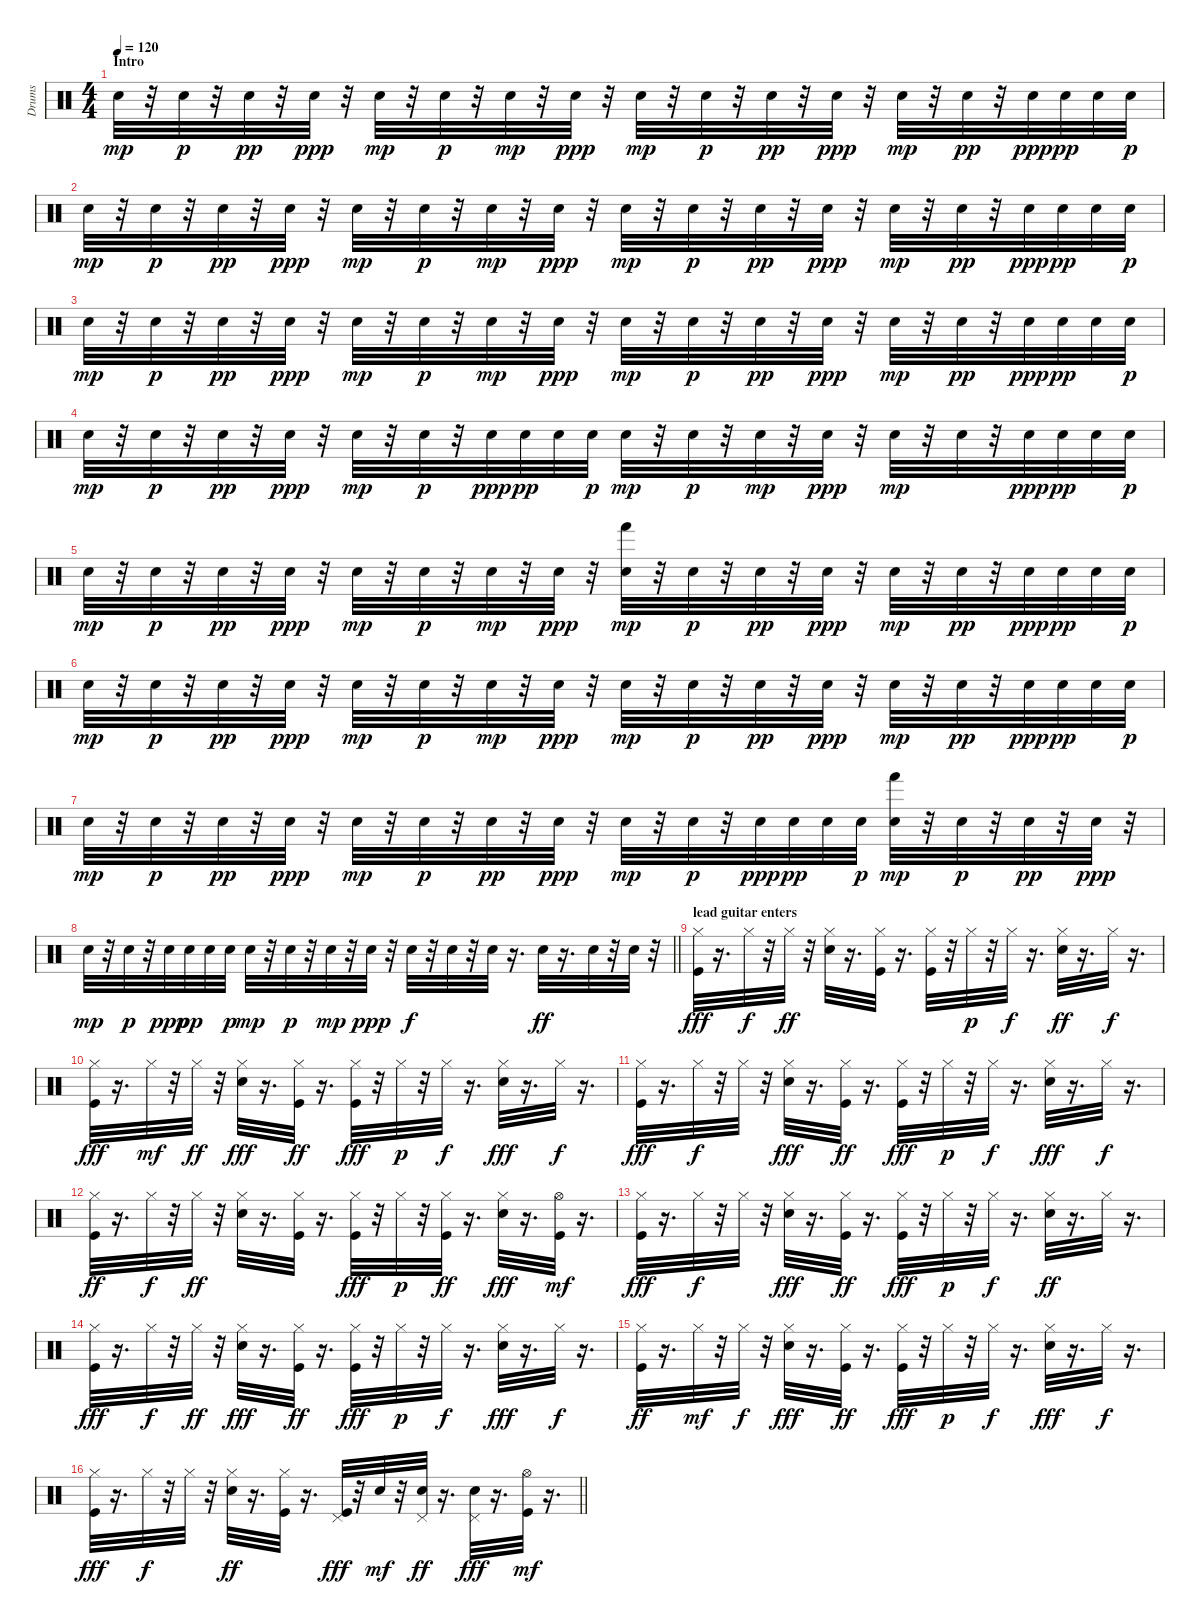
\track ("Drums" "Drums") {instrument percussion}
\staff {score}
\articulation defaults
\ts (4 4)
\section ("" "Intro")
\tempo 120
\clef neutral
\ks c "Snare (hit) 2".32{dy mp}
r.32 "Electric Snare (hit)".32{dy p} r.32 "Snare (hit) 2".32{dy pp} r.32 "Electric Snare (hit)".32{dy ppp} r.32 "Snare (hit) 2".32{dy mp} r.32 "Electric Snare (hit)".32{dy p} r.32 "Snare (hit) 2".32{dy mp} r.32 "Electric Snare (hit)".32{dy ppp} r.32 "Snare (hit) 2".32{dy mp} r.32 "Electric Snare (hit)".32{dy p} r.32 "Snare (hit) 2".32{dy pp} r.32 "Electric Snare (hit)".32{dy ppp} r.32 "Snare (hit) 2".32{dy mp} r.32 "Electric Snare (hit)".32{dy pp} r.32 "Electric Snare (hit)".32{dy ppp} "Electric Snare (hit)".32{dy pp} "Electric Snare (hit)".32 "Electric Snare (hit)".32{dy p} |
"Snare (hit) 2".32{dy mp} r.32 "Electric Snare (hit)".32{dy p} r.32 "Snare (hit) 2".32{dy pp} r.32 "Electric Snare (hit)".32{dy ppp} r.32 "Snare (hit) 2".32{dy mp} r.32 "Electric Snare (hit)".32{dy p} r.32 "Snare (hit) 2".32{dy mp} r.32 "Electric Snare (hit)".32{dy ppp} r.32 "Snare (hit) 2".32{dy mp} r.32 "Electric Snare (hit)".32{dy p} r.32 "Snare (hit) 2".32{dy pp} r.32 "Electric Snare (hit)".32{dy ppp} r.32 "Snare (hit) 2".32{dy mp} r.32 "Electric Snare (hit)".32{dy pp} r.32 "Electric Snare (hit)".32{dy ppp} "Electric Snare (hit)".32{dy pp} "Electric Snare (hit)".32 "Electric Snare (hit)".32{dy p} |
"Snare (hit) 2".32{dy mp} r.32 "Electric Snare (hit)".32{dy p} r.32 "Snare (hit) 2".32{dy pp} r.32 "Electric Snare (hit)".32{dy ppp} r.32 "Snare (hit) 2".32{dy mp} r.32 "Electric Snare (hit)".32{dy p} r.32 "Snare (hit) 2".32{dy mp} r.32 "Electric Snare (hit)".32{dy ppp} r.32 "Snare (hit) 2".32{dy mp} r.32 "Electric Snare (hit)".32{dy p} r.32 "Snare (hit) 2".32{dy pp} r.32 "Electric Snare (hit)".32{dy ppp} r.32 "Snare (hit) 2".32{dy mp} r.32 "Electric Snare (hit)".32{dy pp} r.32 "Electric Snare (hit)".32{dy ppp} "Electric Snare (hit)".32{dy pp} "Electric Snare (hit)".32 "Electric Snare (hit)".32{dy p} |
"Snare (hit) 2".32{dy mp} r.32 "Electric Snare (hit)".32{dy p} r.32 "Snare (hit) 2".32{dy pp} r.32 "Electric Snare (hit)".32{dy ppp} r.32 "Snare (hit) 2".32{dy mp} r.32 "Electric Snare (hit)".32{dy p} r.32 "Electric Snare (hit)".32{dy ppp} "Electric Snare (hit)".32{dy pp} "Electric Snare (hit)".32 "Electric Snare (hit)".32{dy p} "Snare (hit) 2".32{dy mp} r.32 "Electric Snare (hit)".32{dy p} r.32 "Snare (hit) 2".32{dy mp} r.32 "Electric Snare (hit)".32{dy ppp} r.32 "Snare (hit) 2".32{dy mp} r.32 "Electric Snare (hit)".32 r.32 "Electric Snare (hit)".32{dy ppp} "Electric Snare (hit)".32{dy pp} "Electric Snare (hit)".32 "Electric Snare (hit)".32{dy p} |
"Snare (hit) 2".32{dy mp} r.32 "Electric Snare (hit)".32{dy p} r.32 "Snare (hit) 2".32{dy pp} r.32 "Electric Snare (hit)".32{dy ppp} r.32 "Snare (hit) 2".32{dy mp} r.32 "Electric Snare (hit)".32{dy p} r.32 "Snare (hit) 2".32{dy mp} r.32 "Electric Snare (hit)".32{dy ppp} r.32 ("Snare (hit) 2" "Hand (hit)").32{dy mp} r.32 "Electric Snare (hit)".32{dy p} r.32 "Snare (hit) 2".32{dy pp} r.32 "Electric Snare (hit)".32{dy ppp} r.32 "Snare (hit) 2".32{dy mp} r.32 "Electric Snare (hit)".32{dy pp} r.32 "Electric Snare (hit)".32{dy ppp} "Electric Snare (hit)".32{dy pp} "Electric Snare (hit)".32 "Electric Snare (hit)".32{dy p} |
"Snare (hit) 2".32{dy mp} r.32 "Electric Snare (hit)".32{dy p} r.32 "Snare (hit) 2".32{dy pp} r.32 "Electric Snare (hit)".32{dy ppp} r.32 "Snare (hit) 2".32{dy mp} r.32 "Electric Snare (hit)".32{dy p} r.32 "Snare (hit) 2".32{dy mp} r.32 "Electric Snare (hit)".32{dy ppp} r.32 "Snare (hit) 2".32{dy mp} r.32 "Electric Snare (hit)".32{dy p} r.32 "Snare (hit) 2".32{dy pp} r.32 "Electric Snare (hit)".32{dy ppp} r.32 "Snare (hit) 2".32{dy mp} r.32 "Electric Snare (hit)".32{dy pp} r.32 "Electric Snare (hit)".32{dy ppp} "Electric Snare (hit)".32{dy pp} "Electric Snare (hit)".32 "Electric Snare (hit)".32{dy p} |
"Snare (hit) 2".32{dy mp} r.32 "Electric Snare (hit)".32{dy p} r.32 "Snare (hit) 2".32{dy pp} r.32 "Electric Snare (hit)".32{dy ppp} r.32 "Snare (hit) 2".32{dy mp} r.32 "Electric Snare (hit)".32{dy p} r.32 "Snare (hit) 2".32{dy pp} r.32 "Electric Snare (hit)".32{dy ppp} r.32 "Snare (hit) 2".32{dy mp} r.32 "Electric Snare (hit)".32{dy p} r.32 "Electric Snare (hit)".32{dy ppp} "Electric Snare (hit)".32{dy pp} "Electric Snare (hit)".32 "Electric Snare (hit)".32{dy p} ("Hand (hit)" "Snare (hit) 2").32{dy mp} r.32 "Electric Snare (hit)".32{dy p} r.32 "Snare (hit) 2".32{dy pp} r.32 "Electric Snare (hit)".32{dy ppp} r.32 |
\barLineRight lightlight "Snare (hit) 2".32{dy mp}
r.32 "Electric Snare (hit)".32{dy p} r.32 "Electric Snare (hit)".32{dy ppp} "Electric Snare (hit)".32{dy pp} "Electric Snare (hit)".32 "Electric Snare (hit)".32{dy p} "Snare (hit) 2".32{dy mp} r.32 "Electric Snare (hit)".32{dy p} r.32 "Snare (hit) 2".32{dy mp} r.32 "Electric Snare (hit)".32{dy ppp} r.32 "Electric Snare (hit)".32{dy f} r.32 "Electric Snare (hit)".32 r.32 "Electric Snare (hit)".32 r.16{d} "Electric Snare (hit)".32{dy ff} r.16{d} "Electric Snare (hit)".32 r.32 "Electric Snare (hit)".32 r.32 |
\section ("" "lead guitar enters")
("Hi-Hat (closed)" "Kick (hit)").32{dy fff} r.16{d} "Hi-Hat (closed)".32{dy f} r.32 "Hi-Hat (closed)".32{dy ff} r.32 ("Electric Snare (hit)" "Hi-Hat (closed)").32 r.16{d} ("Kick (hit)" "Hi-Hat (closed)").32 r.16{d} ("Kick (hit)" "Hi-Hat (closed)").32 r.32 "Hi-Hat (closed)".32{dy p} r.32 "Hi-Hat (closed)".32{dy f} r.16{d} ("Electric Snare (hit)" "Hi-Hat (closed)").32{dy ff} r.16{d} "Hi-Hat (closed)".32{dy f} r.16{d} |
("Hi-Hat (closed)" "Kick (hit)").32{dy fff} r.16{d} "Hi-Hat (closed)".32{dy mf} r.32 "Hi-Hat (closed)".32{dy ff} r.32 ("Hi-Hat (closed)" "Electric Snare (hit)").32{dy fff} r.16{d} ("Hi-Hat (closed)" "Kick (hit)").32{dy ff} r.16{d} ("Kick (hit)" "Hi-Hat (closed)").32{dy fff} r.32 "Hi-Hat (closed)".32{dy p} r.32 "Hi-Hat (closed)".32{dy f} r.16{d} ("Hi-Hat (closed)" "Electric Snare (hit)").32{dy fff} r.16{d} "Hi-Hat (closed)".32{dy f} r.16{d} |
("Hi-Hat (closed)" "Kick (hit)").32{dy fff} r.16{d} "Hi-Hat (closed)".32{dy f} r.32 "Hi-Hat (closed)".32 r.32 ("Hi-Hat (closed)" "Electric Snare (hit)").32{dy fff} r.16{d} ("Kick (hit)" "Hi-Hat (closed)").32{dy ff} r.16{d} ("Kick (hit)" "Hi-Hat (closed)").32{dy fff} r.32 "Hi-Hat (closed)".32{dy p} r.32 "Hi-Hat (closed)".32{dy f} r.16{d} ("Hi-Hat (closed)" "Electric Snare (hit)").32{dy fff} r.16{d} "Hi-Hat (closed)".32{dy f} r.16{d} |
("Kick (hit)" "Hi-Hat (closed)").32{dy ff} r.16{d} "Hi-Hat (closed)".32{dy f} r.32 "Hi-Hat (closed)".32{dy ff} r.32 ("Electric Snare (hit)" "Hi-Hat (closed)").32 r.16{d} ("Hi-Hat (closed)" "Kick (hit)").32 r.16{d} ("Hi-Hat (closed)" "Kick (hit)").32{dy fff} r.32 "Hi-Hat (closed)".32{dy p} r.32 ("Hi-Hat (closed)" "Kick (hit)").32{dy ff} r.16{d} ("Hi-Hat (closed)" "Electric Snare (hit)").32{dy fff} r.16{d} ("Kick (hit)" "Hi-Hat (open)").32{dy mf} r.16{d} |
("Hi-Hat (closed)" "Kick (hit)").32{dy fff} r.16{d} "Hi-Hat (closed)".32{dy f} r.32 "Hi-Hat (closed)".32 r.32 ("Hi-Hat (closed)" "Electric Snare (hit)").32{dy fff} r.16{d} ("Kick (hit)" "Hi-Hat (closed)").32{dy ff} r.16{d} ("Hi-Hat (closed)" "Kick (hit)").32{dy fff} r.32 "Hi-Hat (closed)".32{dy p} r.32 "Hi-Hat (closed)".32{dy f} r.16{d} ("Electric Snare (hit)" "Hi-Hat (closed)").32{dy ff} r.16{d} "Hi-Hat (closed)".32 r.16{d} |
("Hi-Hat (closed)" "Kick (hit)").32{dy fff} r.16{d} "Hi-Hat (closed)".32{dy f} r.32 "Hi-Hat (closed)".32{dy ff} r.32 ("Hi-Hat (closed)" "Electric Snare (hit)").32{dy fff} r.16{d} ("Hi-Hat (closed)" "Kick (hit)").32{dy ff} r.16{d} ("Hi-Hat (closed)" "Kick (hit)").32{dy fff} r.32 "Hi-Hat (closed)".32{dy p} r.32 "Hi-Hat (closed)".32{dy f} r.16{d} ("Electric Snare (hit)" "Hi-Hat (closed)").32{dy fff} r.16{d} "Hi-Hat (closed)".32{dy f} r.16{d} |
("Kick (hit)" "Hi-Hat (closed)").32{dy ff} r.16{d} "Hi-Hat (closed)".32{dy mf} r.32 "Hi-Hat (closed)".32{dy f} r.32 ("Hi-Hat (closed)" "Electric Snare (hit)").32{dy fff} r.16{d} ("Hi-Hat (closed)" "Kick (hit)").32{dy ff} r.16{d} ("Hi-Hat (closed)" "Kick (hit)").32{dy fff} r.32 "Hi-Hat (closed)".32{dy p} r.32 "Hi-Hat (closed)".32{dy f} r.16{d} ("Hi-Hat (closed)" "Electric Snare (hit)").32{dy fff} r.16{d} "Hi-Hat (closed)".32{dy f} r.16{d} |
\barLineRight lightlight
("Hi-Hat (closed)" "Kick (hit)").32{dy fff} r.16{d} "Hi-Hat (closed)".32{dy f} r.32 "Hi-Hat (closed)".32 r.32 ("Electric Snare (hit)" "Hi-Hat (closed)").32{dy ff} r.16{d} ("Hi-Hat (closed)" "Kick (hit)").32 r.16{d} ("Pedal Hi-Hat (hit)" "Kick (hit)").32{dy fff} r.32 "Electric Snare (hit)".32{dy mf} r.32 ("Electric Snare (hit)" "Pedal Hi-Hat (hit)").32{dy ff} r.16{d} ("Pedal Hi-Hat (hit)" "Electric Snare (hit)").32{dy fff} r.16{d} ("Kick (hit)" "Hi-Hat (open)").32{dy mf} r.16{d}
